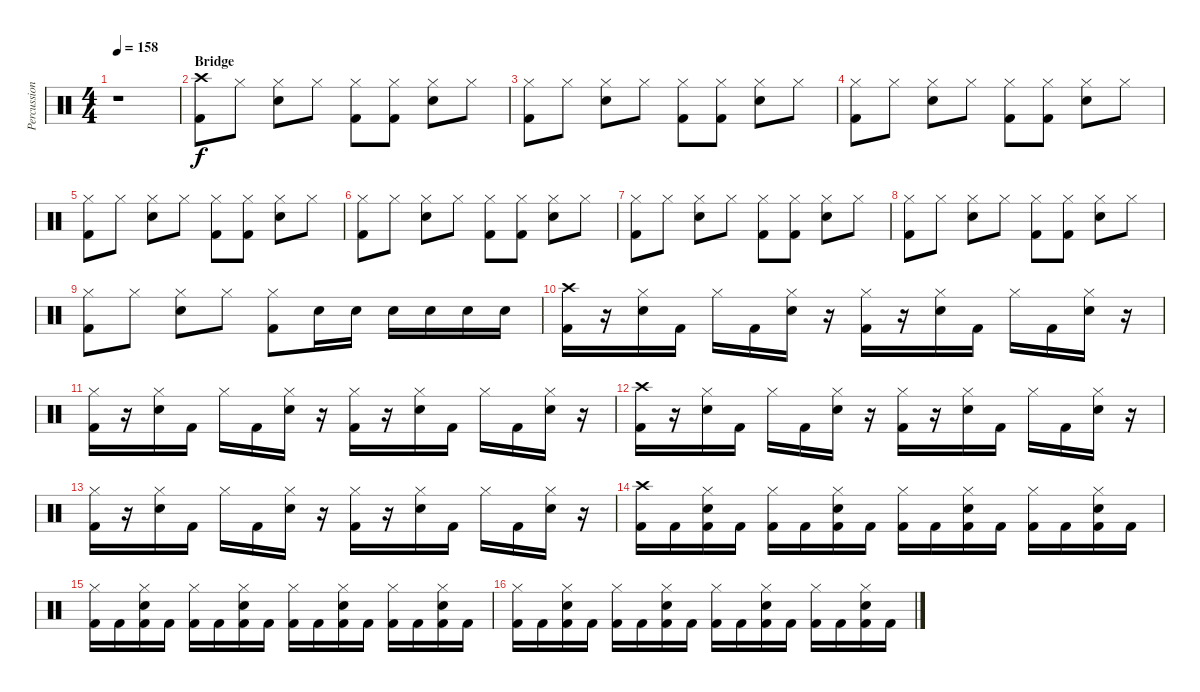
\track ("Percussion" "Percussion") {instrument percussion}
\staff {score}
\articulation defaults
\ts (4 4)
\tempo 158
\clef neutral
\ks c
r.1{dy f} |
\section ("" "Bridge")
("Crash high (hit)" "Kick (hit) 2").8 "Hi-Hat (closed)".8 ("Hi-Hat (closed)" "Snare (hit) 2").8 "Hi-Hat (closed)".8 ("Hi-Hat (closed)" "Kick (hit) 2").8 ("Hi-Hat (closed)" "Kick (hit) 2").8 ("Hi-Hat (closed)" "Snare (hit) 2").8 "Hi-Hat (closed)".8 |
("Hi-Hat (closed)" "Kick (hit) 2").8 "Hi-Hat (closed)".8 ("Hi-Hat (closed)" "Snare (hit) 2").8 "Hi-Hat (closed)".8 ("Hi-Hat (closed)" "Kick (hit) 2").8 ("Hi-Hat (closed)" "Kick (hit) 2").8 ("Hi-Hat (closed)" "Snare (hit) 2").8 "Hi-Hat (closed)".8 |
("Hi-Hat (closed)" "Kick (hit) 2").8 "Hi-Hat (closed)".8 ("Hi-Hat (closed)" "Snare (hit) 2").8 "Hi-Hat (closed)".8 ("Hi-Hat (closed)" "Kick (hit) 2").8 ("Hi-Hat (closed)" "Kick (hit) 2").8 ("Hi-Hat (closed)" "Snare (hit) 2").8 "Hi-Hat (closed)".8 |
("Hi-Hat (closed)" "Kick (hit) 2").8 "Hi-Hat (closed)".8 ("Hi-Hat (closed)" "Snare (hit) 2").8 "Hi-Hat (closed)".8 ("Hi-Hat (closed)" "Kick (hit) 2").8 ("Hi-Hat (closed)" "Kick (hit) 2").8 ("Hi-Hat (closed)" "Snare (hit) 2").8 "Hi-Hat (closed)".8 |
("Hi-Hat (closed)" "Kick (hit) 2").8 "Hi-Hat (closed)".8 ("Hi-Hat (closed)" "Snare (hit) 2").8 "Hi-Hat (closed)".8 ("Hi-Hat (closed)" "Kick (hit) 2").8 ("Hi-Hat (closed)" "Kick (hit) 2").8 ("Hi-Hat (closed)" "Snare (hit) 2").8 "Hi-Hat (closed)".8 |
("Hi-Hat (closed)" "Kick (hit) 2").8 "Hi-Hat (closed)".8 ("Hi-Hat (closed)" "Snare (hit) 2").8 "Hi-Hat (closed)".8 ("Hi-Hat (closed)" "Kick (hit) 2").8 ("Hi-Hat (closed)" "Kick (hit) 2").8 ("Hi-Hat (closed)" "Snare (hit) 2").8 "Hi-Hat (closed)".8 |
("Hi-Hat (closed)" "Kick (hit) 2").8 "Hi-Hat (closed)".8 ("Hi-Hat (closed)" "Snare (hit) 2").8 "Hi-Hat (closed)".8 ("Hi-Hat (closed)" "Kick (hit) 2").8 ("Hi-Hat (closed)" "Kick (hit) 2").8 ("Hi-Hat (closed)" "Snare (hit) 2").8 "Hi-Hat (closed)".8 |
("Hi-Hat (closed)" "Kick (hit) 2").8 "Hi-Hat (closed)".8 ("Hi-Hat (closed)" "Snare (hit) 2").8 "Hi-Hat (closed)".8 ("Hi-Hat (closed)" "Kick (hit) 2").8 "Snare (hit) 2".16 "Snare (hit) 2".16 "Snare (hit) 2".16 "Snare (hit) 2".16 "Snare (hit) 2".16 "Snare (hit) 2".16 |
("Crash high (hit)" "Kick (hit) 2").16 r.16 ("Hi-Hat (closed)" "Snare (hit) 2").16 "Kick (hit) 2".16 "Hi-Hat (closed)".16 "Kick (hit) 2".16 ("Hi-Hat (closed)" "Snare (hit) 2").16 r.16 ("Hi-Hat (closed)" "Kick (hit) 2").16 r.16 ("Hi-Hat (closed)" "Snare (hit) 2").16 "Kick (hit) 2".16 "Hi-Hat (closed)".16 "Kick (hit) 2".16 ("Hi-Hat (closed)" "Snare (hit) 2").16 r.16 |
("Hi-Hat (closed)" "Kick (hit) 2").16 r.16 ("Hi-Hat (closed)" "Snare (hit) 2").16 "Kick (hit) 2".16 "Hi-Hat (closed)".16 "Kick (hit) 2".16 ("Hi-Hat (closed)" "Snare (hit) 2").16 r.16 ("Hi-Hat (closed)" "Kick (hit) 2").16 r.16 ("Hi-Hat (closed)" "Snare (hit) 2").16 "Kick (hit) 2".16 "Hi-Hat (closed)".16 "Kick (hit) 2".16 ("Hi-Hat (closed)" "Snare (hit) 2").16 r.16 |
("Crash high (hit)" "Kick (hit) 2").16 r.16 ("Hi-Hat (closed)" "Snare (hit) 2").16 "Kick (hit) 2".16 "Hi-Hat (closed)".16 "Kick (hit) 2".16 ("Hi-Hat (closed)" "Snare (hit) 2").16 r.16 ("Hi-Hat (closed)" "Kick (hit) 2").16 r.16 ("Hi-Hat (closed)" "Snare (hit) 2").16 "Kick (hit) 2".16 "Hi-Hat (closed)".16 "Kick (hit) 2".16 ("Hi-Hat (closed)" "Snare (hit) 2").16 r.16 |
("Hi-Hat (closed)" "Kick (hit) 2").16 r.16 ("Hi-Hat (closed)" "Snare (hit) 2").16 "Kick (hit) 2".16 "Hi-Hat (closed)".16 "Kick (hit) 2".16 ("Hi-Hat (closed)" "Snare (hit) 2").16 r.16 ("Hi-Hat (closed)" "Kick (hit) 2").16 r.16 ("Hi-Hat (closed)" "Snare (hit) 2").16 "Kick (hit) 2".16 "Hi-Hat (closed)".16 "Kick (hit) 2".16 ("Hi-Hat (closed)" "Snare (hit) 2").16 r.16 |
("Crash high (hit)" "Kick (hit) 2").16 "Kick (hit) 2".16 ("Hi-Hat (closed)" "Snare (hit) 2" "Kick (hit) 2").16 "Kick (hit) 2".16 ("Hi-Hat (closed)" "Kick (hit) 2").16 "Kick (hit) 2".16 ("Hi-Hat (closed)" "Snare (hit) 2" "Kick (hit) 2").16 "Kick (hit) 2".16 ("Hi-Hat (closed)" "Kick (hit) 2").16 "Kick (hit) 2".16 ("Hi-Hat (closed)" "Snare (hit) 2" "Kick (hit) 2").16 "Kick (hit) 2".16 ("Hi-Hat (closed)" "Kick (hit) 2").16 "Kick (hit) 2".16 ("Hi-Hat (closed)" "Snare (hit) 2" "Kick (hit) 2").16 "Kick (hit) 2".16 |
("Hi-Hat (closed)" "Kick (hit) 2").16 "Kick (hit) 2".16 ("Hi-Hat (closed)" "Snare (hit) 2" "Kick (hit) 2").16 "Kick (hit) 2".16 ("Hi-Hat (closed)" "Kick (hit) 2").16 "Kick (hit) 2".16 ("Hi-Hat (closed)" "Snare (hit) 2" "Kick (hit) 2").16 "Kick (hit) 2".16 ("Hi-Hat (closed)" "Kick (hit) 2").16 "Kick (hit) 2".16 ("Hi-Hat (closed)" "Snare (hit) 2" "Kick (hit) 2").16 "Kick (hit) 2".16 ("Hi-Hat (closed)" "Kick (hit) 2").16 "Kick (hit) 2".16 ("Hi-Hat (closed)" "Snare (hit) 2" "Kick (hit) 2").16 "Kick (hit) 2".16 |
("Hi-Hat (closed)" "Kick (hit) 2").16 "Kick (hit) 2".16 ("Hi-Hat (closed)" "Snare (hit) 2" "Kick (hit) 2").16 "Kick (hit) 2".16 ("Hi-Hat (closed)" "Kick (hit) 2").16 "Kick (hit) 2".16 ("Hi-Hat (closed)" "Snare (hit) 2" "Kick (hit) 2").16 "Kick (hit) 2".16 ("Hi-Hat (closed)" "Kick (hit) 2").16 "Kick (hit) 2".16 ("Hi-Hat (closed)" "Snare (hit) 2" "Kick (hit) 2").16 "Kick (hit) 2".16 ("Hi-Hat (closed)" "Kick (hit) 2").16 "Kick (hit) 2".16 ("Hi-Hat (closed)" "Snare (hit) 2" "Kick (hit) 2").16 "Kick (hit) 2".16
